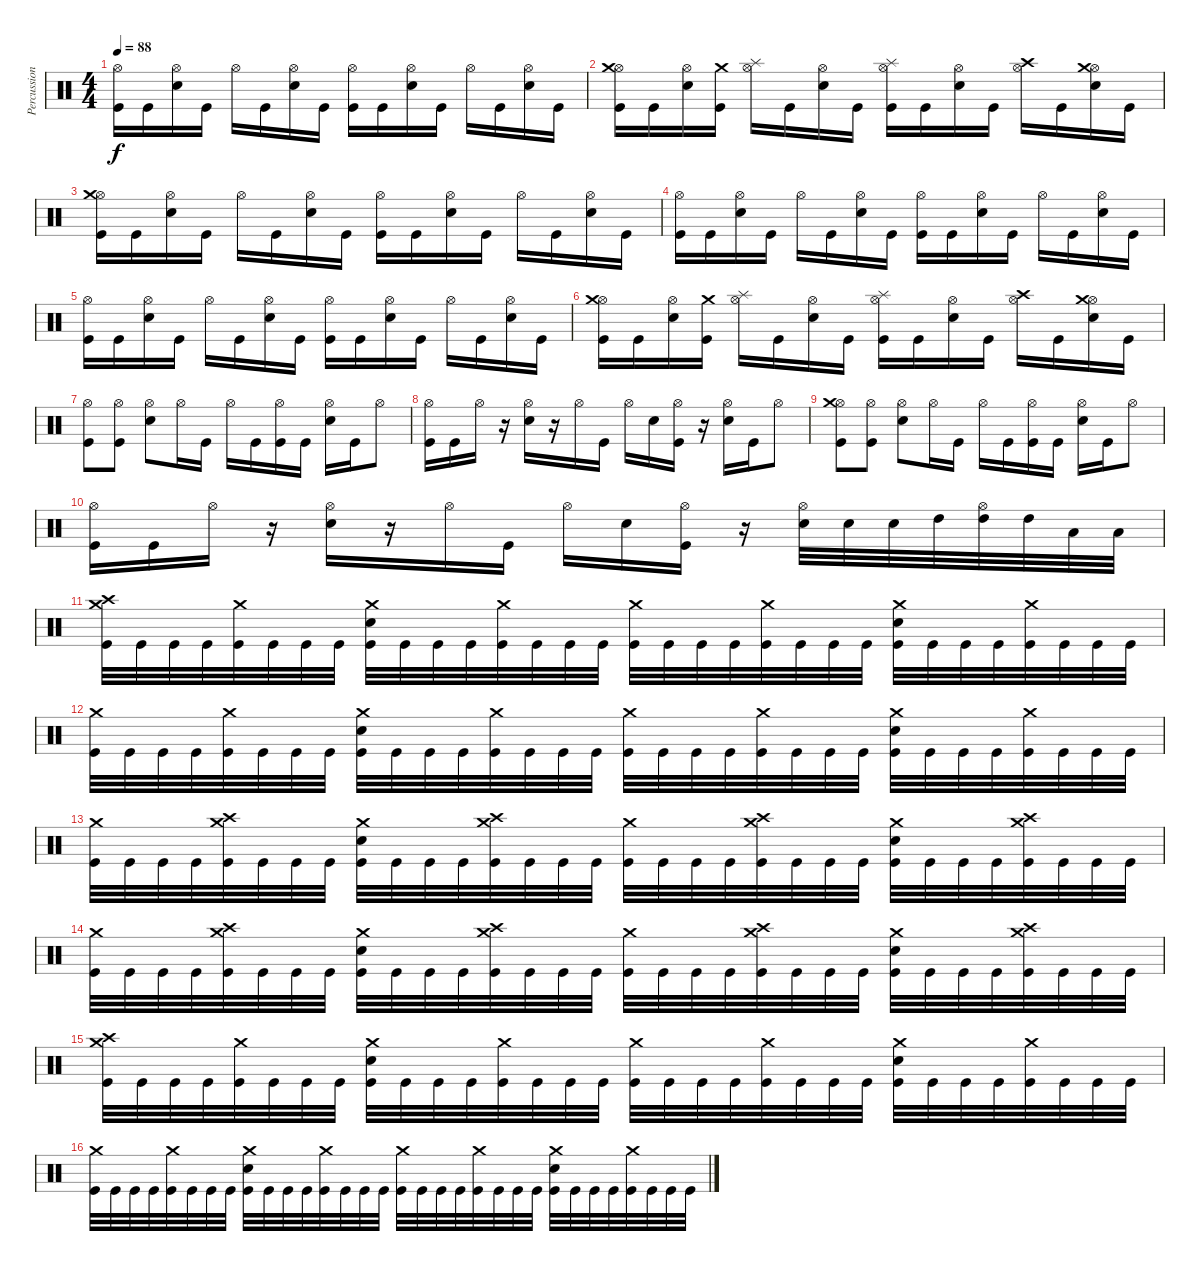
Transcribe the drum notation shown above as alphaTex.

\track ("Percussion" "Percussion") {instrument percussion}
\staff {score}
\articulation defaults
\ts (4 4)
\tempo 88
\clef neutral
\ks c
("Hi-Hat (open)" "Kick (hit)").16{dy f} "Kick (hit)".16 ("Hi-Hat (open)" "Electric Snare (hit)").16 "Kick (hit)".16 "Hi-Hat (open)".16 "Kick (hit)".16 ("Hi-Hat (open)" "Electric Snare (hit)").16 "Kick (hit)".16 ("Hi-Hat (open)" "Kick (hit)").16 "Kick (hit)".16 ("Hi-Hat (open)" "Electric Snare (hit)").16 "Kick (hit)".16 "Hi-Hat (open)".16 "Kick (hit)".16 ("Hi-Hat (open)" "Electric Snare (hit)").16 "Kick (hit)".16 |
("Hi-Hat (open)" "Crash medium (hit)" "Kick (hit)").16 "Kick (hit)".16 ("Hi-Hat (open)" "Electric Snare (hit)").16 ("Crash medium (hit)" "Kick (hit)").16 ("Hi-Hat (open)" "Splash (hit)").16 "Kick (hit)".16 ("Hi-Hat (open)" "Electric Snare (hit)").16 "Kick (hit)".16 ("Hi-Hat (open)" "Splash (hit)" "Kick (hit)").16 "Kick (hit)".16 ("Hi-Hat (open)" "Electric Snare (hit)").16 "Kick (hit)".16 ("Hi-Hat (open)" "Crash high (hit)").16 "Kick (hit)".16 ("Hi-Hat (open)" "Crash medium (hit)" "Electric Snare (hit)").16 "Kick (hit)".16 |
("Hi-Hat (open)" "Crash medium (hit)" "Kick (hit)").16 "Kick (hit)".16 ("Hi-Hat (open)" "Electric Snare (hit)").16 "Kick (hit)".16 "Hi-Hat (open)".16 "Kick (hit)".16 ("Hi-Hat (open)" "Electric Snare (hit)").16 "Kick (hit)".16 ("Hi-Hat (open)" "Kick (hit)").16 "Kick (hit)".16 ("Hi-Hat (open)" "Electric Snare (hit)").16 "Kick (hit)".16 "Hi-Hat (open)".16 "Kick (hit)".16 ("Hi-Hat (open)" "Electric Snare (hit)").16 "Kick (hit)".16 |
("Hi-Hat (open)" "Kick (hit)").16 "Kick (hit)".16 ("Hi-Hat (open)" "Electric Snare (hit)").16 "Kick (hit)".16 "Hi-Hat (open)".16 "Kick (hit)".16 ("Hi-Hat (open)" "Electric Snare (hit)").16 "Kick (hit)".16 ("Hi-Hat (open)" "Kick (hit)").16 "Kick (hit)".16 ("Hi-Hat (open)" "Electric Snare (hit)").16 "Kick (hit)".16 "Hi-Hat (open)".16 "Kick (hit)".16 ("Hi-Hat (open)" "Electric Snare (hit)").16 "Kick (hit)".16 |
("Hi-Hat (open)" "Kick (hit)").16 "Kick (hit)".16 ("Hi-Hat (open)" "Electric Snare (hit)").16 "Kick (hit)".16 "Hi-Hat (open)".16 "Kick (hit)".16 ("Hi-Hat (open)" "Electric Snare (hit)").16 "Kick (hit)".16 ("Hi-Hat (open)" "Kick (hit)").16 "Kick (hit)".16 ("Hi-Hat (open)" "Electric Snare (hit)").16 "Kick (hit)".16 "Hi-Hat (open)".16 "Kick (hit)".16 ("Hi-Hat (open)" "Electric Snare (hit)").16 "Kick (hit)".16 |
("Hi-Hat (open)" "Crash medium (hit)" "Kick (hit)").16 "Kick (hit)".16 ("Hi-Hat (open)" "Electric Snare (hit)").16 ("Crash medium (hit)" "Kick (hit)").16 ("Hi-Hat (open)" "Splash (hit)").16 "Kick (hit)".16 ("Hi-Hat (open)" "Electric Snare (hit)").16 "Kick (hit)".16 ("Hi-Hat (open)" "Splash (hit)" "Kick (hit)").16 "Kick (hit)".16 ("Hi-Hat (open)" "Electric Snare (hit)").16 "Kick (hit)".16 ("Hi-Hat (open)" "Crash high (hit)").16 "Kick (hit)".16 ("Hi-Hat (open)" "Crash medium (hit)" "Electric Snare (hit)").16 "Kick (hit)".16 |
("Hi-Hat (open)" "Kick (hit)").8 ("Hi-Hat (open)" "Kick (hit)").8 ("Hi-Hat (open)" "Electric Snare (hit)").8 "Hi-Hat (open)".16 "Kick (hit)".16 "Hi-Hat (open)".16 "Kick (hit)".16 ("Hi-Hat (open)" "Kick (hit)").16 "Kick (hit)".16 ("Hi-Hat (open)" "Electric Snare (hit)").16 "Kick (hit)".16 "Hi-Hat (open)".8 |
("Hi-Hat (open)" "Kick (hit)").16 "Kick (hit)".16 "Hi-Hat (open)".16 r.16 ("Hi-Hat (open)" "Electric Snare (hit)").16 r.16 "Hi-Hat (open)".16 "Kick (hit)".16 "Hi-Hat (open)".16 "Electric Snare (hit)".16 ("Hi-Hat (open)" "Kick (hit)").16 r.16 ("Hi-Hat (open)" "Electric Snare (hit)").16 "Kick (hit)".16 "Hi-Hat (open)".8 |
("Hi-Hat (open)" "Crash medium (hit)" "Kick (hit)").8 ("Hi-Hat (open)" "Kick (hit)").8 ("Hi-Hat (open)" "Electric Snare (hit)").8 "Hi-Hat (open)".16 "Kick (hit)".16 "Hi-Hat (open)".16 "Kick (hit)".16 ("Hi-Hat (open)" "Kick (hit)").16 "Kick (hit)".16 ("Hi-Hat (open)" "Electric Snare (hit)").16 "Kick (hit)".16 "Hi-Hat (open)".8 |
("Hi-Hat (open)" "Kick (hit)").16 "Kick (hit)".16 "Hi-Hat (open)".16 r.16 ("Hi-Hat (open)" "Electric Snare (hit)").16 r.16 "Hi-Hat (open)".16 "Kick (hit)".16 "Hi-Hat (open)".16 "Electric Snare (hit)".16 ("Hi-Hat (open)" "Kick (hit)").16 r.16 ("Hi-Hat (open)" "Electric Snare (hit)").32 "Electric Snare (hit)".32 "Electric Snare (hit)".32 "High Tom (hit)".32 ("Hi-Hat (open)" "High Tom (hit)").32 "High Tom (hit)".32 "Low Floor Tom (hit)".32 "Low Floor Tom (hit)".32 |
("Crash medium (hit)" "Crash high (hit)" "Kick (hit)").32 "Kick (hit)".32 "Kick (hit)".32 "Kick (hit)".32 ("Crash medium (hit)" "Kick (hit)").32 "Kick (hit)".32 "Kick (hit)".32 "Kick (hit)".32 ("Crash medium (hit)" "Electric Snare (hit)" "Kick (hit)").32 "Kick (hit)".32 "Kick (hit)".32 "Kick (hit)".32 ("Crash medium (hit)" "Kick (hit)").32 "Kick (hit)".32 "Kick (hit)".32 "Kick (hit)".32 ("Crash medium (hit)" "Kick (hit)").32 "Kick (hit)".32 "Kick (hit)".32 "Kick (hit)".32 ("Crash medium (hit)" "Kick (hit)").32 "Kick (hit)".32 "Kick (hit)".32 "Kick (hit)".32 ("Crash medium (hit)" "Electric Snare (hit)" "Kick (hit)").32 "Kick (hit)".32 "Kick (hit)".32 "Kick (hit)".32 ("Crash medium (hit)" "Kick (hit)").32 "Kick (hit)".32 "Kick (hit)".32 "Kick (hit)".32 |
("Crash medium (hit)" "Kick (hit)").32 "Kick (hit)".32 "Kick (hit)".32 "Kick (hit)".32 ("Crash medium (hit)" "Kick (hit)").32 "Kick (hit)".32 "Kick (hit)".32 "Kick (hit)".32 ("Crash medium (hit)" "Electric Snare (hit)" "Kick (hit)").32 "Kick (hit)".32 "Kick (hit)".32 "Kick (hit)".32 ("Crash medium (hit)" "Kick (hit)").32 "Kick (hit)".32 "Kick (hit)".32 "Kick (hit)".32 ("Crash medium (hit)" "Kick (hit)").32 "Kick (hit)".32 "Kick (hit)".32 "Kick (hit)".32 ("Crash medium (hit)" "Kick (hit)").32 "Kick (hit)".32 "Kick (hit)".32 "Kick (hit)".32 ("Crash medium (hit)" "Electric Snare (hit)" "Kick (hit)").32 "Kick (hit)".32 "Kick (hit)".32 "Kick (hit)".32 ("Crash medium (hit)" "Kick (hit)").32 "Kick (hit)".32 "Kick (hit)".32 "Kick (hit)".32 |
("Crash medium (hit)" "Kick (hit)").32 "Kick (hit)".32 "Kick (hit)".32 "Kick (hit)".32 ("Crash medium (hit)" "Crash high (hit)" "Kick (hit)").32 "Kick (hit)".32 "Kick (hit)".32 "Kick (hit)".32 ("Crash medium (hit)" "Electric Snare (hit)" "Kick (hit)").32 "Kick (hit)".32 "Kick (hit)".32 "Kick (hit)".32 ("Crash medium (hit)" "Crash high (hit)" "Kick (hit)").32 "Kick (hit)".32 "Kick (hit)".32 "Kick (hit)".32 ("Crash medium (hit)" "Kick (hit)").32 "Kick (hit)".32 "Kick (hit)".32 "Kick (hit)".32 ("Crash medium (hit)" "Crash high (hit)" "Kick (hit)").32 "Kick (hit)".32 "Kick (hit)".32 "Kick (hit)".32 ("Crash medium (hit)" "Electric Snare (hit)" "Kick (hit)").32 "Kick (hit)".32 "Kick (hit)".32 "Kick (hit)".32 ("Crash medium (hit)" "Crash high (hit)" "Kick (hit)").32 "Kick (hit)".32 "Kick (hit)".32 "Kick (hit)".32 |
("Crash medium (hit)" "Kick (hit)").32 "Kick (hit)".32 "Kick (hit)".32 "Kick (hit)".32 ("Crash medium (hit)" "Crash high (hit)" "Kick (hit)").32 "Kick (hit)".32 "Kick (hit)".32 "Kick (hit)".32 ("Crash medium (hit)" "Electric Snare (hit)" "Kick (hit)").32 "Kick (hit)".32 "Kick (hit)".32 "Kick (hit)".32 ("Crash medium (hit)" "Crash high (hit)" "Kick (hit)").32 "Kick (hit)".32 "Kick (hit)".32 "Kick (hit)".32 ("Crash medium (hit)" "Kick (hit)").32 "Kick (hit)".32 "Kick (hit)".32 "Kick (hit)".32 ("Crash medium (hit)" "Crash high (hit)" "Kick (hit)").32 "Kick (hit)".32 "Kick (hit)".32 "Kick (hit)".32 ("Crash medium (hit)" "Electric Snare (hit)" "Kick (hit)").32 "Kick (hit)".32 "Kick (hit)".32 "Kick (hit)".32 ("Crash medium (hit)" "Crash high (hit)" "Kick (hit)").32 "Kick (hit)".32 "Kick (hit)".32 "Kick (hit)".32 |
("Crash medium (hit)" "Crash high (hit)" "Kick (hit)").32 "Kick (hit)".32 "Kick (hit)".32 "Kick (hit)".32 ("Crash medium (hit)" "Kick (hit)").32 "Kick (hit)".32 "Kick (hit)".32 "Kick (hit)".32 ("Crash medium (hit)" "Electric Snare (hit)" "Kick (hit)").32 "Kick (hit)".32 "Kick (hit)".32 "Kick (hit)".32 ("Crash medium (hit)" "Kick (hit)").32 "Kick (hit)".32 "Kick (hit)".32 "Kick (hit)".32 ("Crash medium (hit)" "Kick (hit)").32 "Kick (hit)".32 "Kick (hit)".32 "Kick (hit)".32 ("Crash medium (hit)" "Kick (hit)").32 "Kick (hit)".32 "Kick (hit)".32 "Kick (hit)".32 ("Crash medium (hit)" "Electric Snare (hit)" "Kick (hit)").32 "Kick (hit)".32 "Kick (hit)".32 "Kick (hit)".32 ("Crash medium (hit)" "Kick (hit)").32 "Kick (hit)".32 "Kick (hit)".32 "Kick (hit)".32 |
("Crash medium (hit)" "Kick (hit)").32 "Kick (hit)".32 "Kick (hit)".32 "Kick (hit)".32 ("Crash medium (hit)" "Kick (hit)").32 "Kick (hit)".32 "Kick (hit)".32 "Kick (hit)".32 ("Crash medium (hit)" "Electric Snare (hit)" "Kick (hit)").32 "Kick (hit)".32 "Kick (hit)".32 "Kick (hit)".32 ("Crash medium (hit)" "Kick (hit)").32 "Kick (hit)".32 "Kick (hit)".32 "Kick (hit)".32 ("Crash medium (hit)" "Kick (hit)").32 "Kick (hit)".32 "Kick (hit)".32 "Kick (hit)".32 ("Crash medium (hit)" "Kick (hit)").32 "Kick (hit)".32 "Kick (hit)".32 "Kick (hit)".32 ("Crash medium (hit)" "Electric Snare (hit)" "Kick (hit)").32 "Kick (hit)".32 "Kick (hit)".32 "Kick (hit)".32 ("Crash medium (hit)" "Kick (hit)").32 "Kick (hit)".32 "Kick (hit)".32 "Kick (hit)".32
